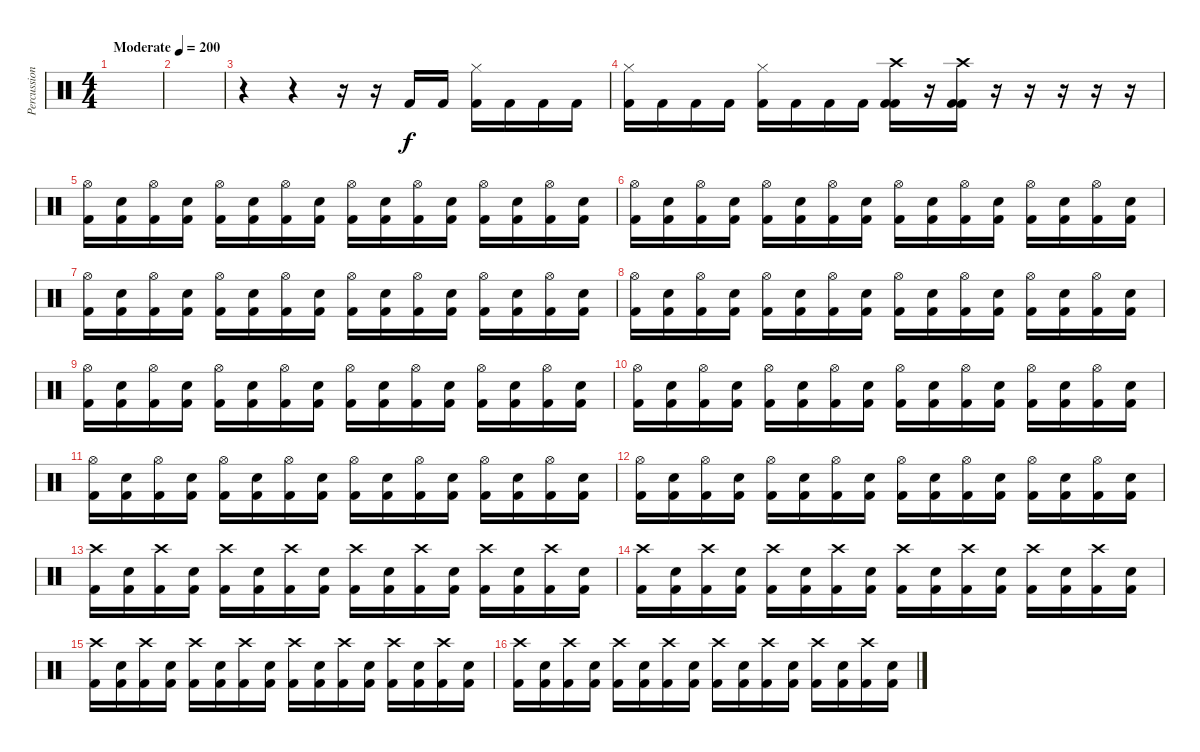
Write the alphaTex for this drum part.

\track ("Percussion" "Percussion") {instrument percussion}
\staff {score}
\articulation defaults
\ts (4 4)
\tempo (200 "Moderate")
\clef neutral
\ks c
|
|
r.4 r.4 r.16 r.16 "Kick (hit) 2".16 "Kick (hit) 2".16 ("Hi-Hat (closed)" "Kick (hit) 2").16 "Kick (hit) 2".16 "Kick (hit) 2".16 "Kick (hit) 2".16 |
("Hi-Hat (closed)" "Kick (hit) 2").16 "Kick (hit) 2".16 "Kick (hit) 2".16 "Kick (hit) 2".16 ("Hi-Hat (closed)" "Kick (hit) 2").16 "Kick (hit) 2".16 "Kick (hit) 2".16 "Kick (hit) 2".16 ("Crash high (hit)" "Kick (hit) 2" "Kick (hit) 2").16 r.16 ("Crash high (hit)" "Kick (hit) 2" "Kick (hit) 2").16 r.16 r.16 r.16 r.16 r.16 |
("Hi-Hat (open)" "Kick (hit) 2").16 ("Electric Snare (hit)" "Kick (hit) 2").16 ("Hi-Hat (open)" "Kick (hit) 2").16 ("Electric Snare (hit)" "Kick (hit) 2").16 ("Hi-Hat (open)" "Kick (hit) 2").16 ("Electric Snare (hit)" "Kick (hit) 2").16 ("Hi-Hat (open)" "Kick (hit) 2").16 ("Electric Snare (hit)" "Kick (hit) 2").16 ("Hi-Hat (open)" "Kick (hit) 2").16 ("Electric Snare (hit)" "Kick (hit) 2").16 ("Hi-Hat (open)" "Kick (hit) 2").16 ("Electric Snare (hit)" "Kick (hit) 2").16 ("Hi-Hat (open)" "Kick (hit) 2").16 ("Electric Snare (hit)" "Kick (hit) 2").16 ("Hi-Hat (open)" "Kick (hit) 2").16 ("Electric Snare (hit)" "Kick (hit) 2").16 |
("Hi-Hat (open)" "Kick (hit) 2").16 ("Electric Snare (hit)" "Kick (hit) 2").16 ("Hi-Hat (open)" "Kick (hit) 2").16 ("Electric Snare (hit)" "Kick (hit) 2").16 ("Hi-Hat (open)" "Kick (hit) 2").16 ("Electric Snare (hit)" "Kick (hit) 2").16 ("Hi-Hat (open)" "Kick (hit) 2").16 ("Electric Snare (hit)" "Kick (hit) 2").16 ("Hi-Hat (open)" "Kick (hit) 2").16 ("Electric Snare (hit)" "Kick (hit) 2").16 ("Hi-Hat (open)" "Kick (hit) 2").16 ("Electric Snare (hit)" "Kick (hit) 2").16 ("Hi-Hat (open)" "Kick (hit) 2").16 ("Electric Snare (hit)" "Kick (hit) 2").16 ("Hi-Hat (open)" "Kick (hit) 2").16 ("Electric Snare (hit)" "Kick (hit) 2").16 |
("Hi-Hat (open)" "Kick (hit) 2").16 ("Electric Snare (hit)" "Kick (hit) 2").16 ("Hi-Hat (open)" "Kick (hit) 2").16 ("Electric Snare (hit)" "Kick (hit) 2").16 ("Hi-Hat (open)" "Kick (hit) 2").16 ("Electric Snare (hit)" "Kick (hit) 2").16 ("Hi-Hat (open)" "Kick (hit) 2").16 ("Electric Snare (hit)" "Kick (hit) 2").16 ("Hi-Hat (open)" "Kick (hit) 2").16 ("Electric Snare (hit)" "Kick (hit) 2").16 ("Hi-Hat (open)" "Kick (hit) 2").16 ("Electric Snare (hit)" "Kick (hit) 2").16 ("Hi-Hat (open)" "Kick (hit) 2").16 ("Electric Snare (hit)" "Kick (hit) 2").16 ("Hi-Hat (open)" "Kick (hit) 2").16 ("Electric Snare (hit)" "Kick (hit) 2").16 |
("Hi-Hat (open)" "Kick (hit) 2").16 ("Electric Snare (hit)" "Kick (hit) 2").16 ("Hi-Hat (open)" "Kick (hit) 2").16 ("Electric Snare (hit)" "Kick (hit) 2").16 ("Hi-Hat (open)" "Kick (hit) 2").16 ("Electric Snare (hit)" "Kick (hit) 2").16 ("Hi-Hat (open)" "Kick (hit) 2").16 ("Electric Snare (hit)" "Kick (hit) 2").16 ("Hi-Hat (open)" "Kick (hit) 2").16 ("Electric Snare (hit)" "Kick (hit) 2").16 ("Hi-Hat (open)" "Kick (hit) 2").16 ("Electric Snare (hit)" "Kick (hit) 2").16 ("Hi-Hat (open)" "Kick (hit) 2").16 ("Electric Snare (hit)" "Kick (hit) 2").16 ("Hi-Hat (open)" "Kick (hit) 2").16 ("Electric Snare (hit)" "Kick (hit) 2").16 |
("Hi-Hat (open)" "Kick (hit) 2").16 ("Electric Snare (hit)" "Kick (hit) 2").16 ("Hi-Hat (open)" "Kick (hit) 2").16 ("Electric Snare (hit)" "Kick (hit) 2").16 ("Hi-Hat (open)" "Kick (hit) 2").16 ("Electric Snare (hit)" "Kick (hit) 2").16 ("Hi-Hat (open)" "Kick (hit) 2").16 ("Electric Snare (hit)" "Kick (hit) 2").16 ("Hi-Hat (open)" "Kick (hit) 2").16 ("Electric Snare (hit)" "Kick (hit) 2").16 ("Hi-Hat (open)" "Kick (hit) 2").16 ("Electric Snare (hit)" "Kick (hit) 2").16 ("Hi-Hat (open)" "Kick (hit) 2").16 ("Electric Snare (hit)" "Kick (hit) 2").16 ("Hi-Hat (open)" "Kick (hit) 2").16 ("Electric Snare (hit)" "Kick (hit) 2").16 |
("Hi-Hat (open)" "Kick (hit) 2").16 ("Electric Snare (hit)" "Kick (hit) 2").16 ("Hi-Hat (open)" "Kick (hit) 2").16 ("Electric Snare (hit)" "Kick (hit) 2").16 ("Hi-Hat (open)" "Kick (hit) 2").16 ("Electric Snare (hit)" "Kick (hit) 2").16 ("Hi-Hat (open)" "Kick (hit) 2").16 ("Electric Snare (hit)" "Kick (hit) 2").16 ("Hi-Hat (open)" "Kick (hit) 2").16 ("Electric Snare (hit)" "Kick (hit) 2").16 ("Hi-Hat (open)" "Kick (hit) 2").16 ("Electric Snare (hit)" "Kick (hit) 2").16 ("Hi-Hat (open)" "Kick (hit) 2").16 ("Electric Snare (hit)" "Kick (hit) 2").16 ("Hi-Hat (open)" "Kick (hit) 2").16 ("Electric Snare (hit)" "Kick (hit) 2").16 |
("Hi-Hat (open)" "Kick (hit) 2").16 ("Electric Snare (hit)" "Kick (hit) 2").16 ("Hi-Hat (open)" "Kick (hit) 2").16 ("Electric Snare (hit)" "Kick (hit) 2").16 ("Hi-Hat (open)" "Kick (hit) 2").16 ("Electric Snare (hit)" "Kick (hit) 2").16 ("Hi-Hat (open)" "Kick (hit) 2").16 ("Electric Snare (hit)" "Kick (hit) 2").16 ("Hi-Hat (open)" "Kick (hit) 2").16 ("Electric Snare (hit)" "Kick (hit) 2").16 ("Hi-Hat (open)" "Kick (hit) 2").16 ("Electric Snare (hit)" "Kick (hit) 2").16 ("Hi-Hat (open)" "Kick (hit) 2").16 ("Electric Snare (hit)" "Kick (hit) 2").16 ("Hi-Hat (open)" "Kick (hit) 2").16 ("Electric Snare (hit)" "Kick (hit) 2").16 |
("Hi-Hat (open)" "Kick (hit) 2").16 ("Electric Snare (hit)" "Kick (hit) 2").16 ("Hi-Hat (open)" "Kick (hit) 2").16 ("Electric Snare (hit)" "Kick (hit) 2").16 ("Hi-Hat (open)" "Kick (hit) 2").16 ("Electric Snare (hit)" "Kick (hit) 2").16 ("Hi-Hat (open)" "Kick (hit) 2").16 ("Electric Snare (hit)" "Kick (hit) 2").16 ("Hi-Hat (open)" "Kick (hit) 2").16 ("Electric Snare (hit)" "Kick (hit) 2").16 ("Hi-Hat (open)" "Kick (hit) 2").16 ("Electric Snare (hit)" "Kick (hit) 2").16 ("Hi-Hat (open)" "Kick (hit) 2").16 ("Electric Snare (hit)" "Kick (hit) 2").16 ("Hi-Hat (open)" "Kick (hit) 2").16 ("Electric Snare (hit)" "Kick (hit) 2").16 |
("Crash high (hit)" "Kick (hit) 2").16 ("Electric Snare (hit)" "Kick (hit) 2").16 ("Crash high (hit)" "Kick (hit) 2").16 ("Electric Snare (hit)" "Kick (hit) 2").16 ("Crash high (hit)" "Kick (hit) 2").16 ("Electric Snare (hit)" "Kick (hit) 2").16 ("Crash high (hit)" "Kick (hit) 2").16 ("Electric Snare (hit)" "Kick (hit) 2").16 ("Crash high (hit)" "Kick (hit) 2").16 ("Electric Snare (hit)" "Kick (hit) 2").16 ("Crash high (hit)" "Kick (hit) 2").16 ("Electric Snare (hit)" "Kick (hit) 2").16 ("Crash high (hit)" "Kick (hit) 2").16 ("Electric Snare (hit)" "Kick (hit) 2").16 ("Crash high (hit)" "Kick (hit) 2").16 ("Electric Snare (hit)" "Kick (hit) 2").16 |
("Crash high (hit)" "Kick (hit) 2").16 ("Electric Snare (hit)" "Kick (hit) 2").16 ("Crash high (hit)" "Kick (hit) 2").16 ("Electric Snare (hit)" "Kick (hit) 2").16 ("Crash high (hit)" "Kick (hit) 2").16 ("Electric Snare (hit)" "Kick (hit) 2").16 ("Crash high (hit)" "Kick (hit) 2").16 ("Electric Snare (hit)" "Kick (hit) 2").16 ("Crash high (hit)" "Kick (hit) 2").16 ("Electric Snare (hit)" "Kick (hit) 2").16 ("Crash high (hit)" "Kick (hit) 2").16 ("Electric Snare (hit)" "Kick (hit) 2").16 ("Crash high (hit)" "Kick (hit) 2").16 ("Electric Snare (hit)" "Kick (hit) 2").16 ("Crash high (hit)" "Kick (hit) 2").16 ("Electric Snare (hit)" "Kick (hit) 2").16 |
("Crash high (hit)" "Kick (hit) 2").16 ("Electric Snare (hit)" "Kick (hit) 2").16 ("Crash high (hit)" "Kick (hit) 2").16 ("Electric Snare (hit)" "Kick (hit) 2").16 ("Crash high (hit)" "Kick (hit) 2").16 ("Electric Snare (hit)" "Kick (hit) 2").16 ("Crash high (hit)" "Kick (hit) 2").16 ("Electric Snare (hit)" "Kick (hit) 2").16 ("Crash high (hit)" "Kick (hit) 2").16 ("Electric Snare (hit)" "Kick (hit) 2").16 ("Crash high (hit)" "Kick (hit) 2").16 ("Electric Snare (hit)" "Kick (hit) 2").16 ("Crash high (hit)" "Kick (hit) 2").16 ("Electric Snare (hit)" "Kick (hit) 2").16 ("Crash high (hit)" "Kick (hit) 2").16 ("Electric Snare (hit)" "Kick (hit) 2").16 |
("Crash high (hit)" "Kick (hit) 2").16 ("Electric Snare (hit)" "Kick (hit) 2").16 ("Crash high (hit)" "Kick (hit) 2").16 ("Electric Snare (hit)" "Kick (hit) 2").16 ("Crash high (hit)" "Kick (hit) 2").16 ("Electric Snare (hit)" "Kick (hit) 2").16 ("Crash high (hit)" "Kick (hit) 2").16 ("Electric Snare (hit)" "Kick (hit) 2").16 ("Crash high (hit)" "Kick (hit) 2").16 ("Electric Snare (hit)" "Kick (hit) 2").16 ("Crash high (hit)" "Kick (hit) 2").16 ("Electric Snare (hit)" "Kick (hit) 2").16 ("Crash high (hit)" "Kick (hit) 2").16 ("Electric Snare (hit)" "Kick (hit) 2").16 ("Crash high (hit)" "Kick (hit) 2").16 ("Electric Snare (hit)" "Kick (hit) 2").16
